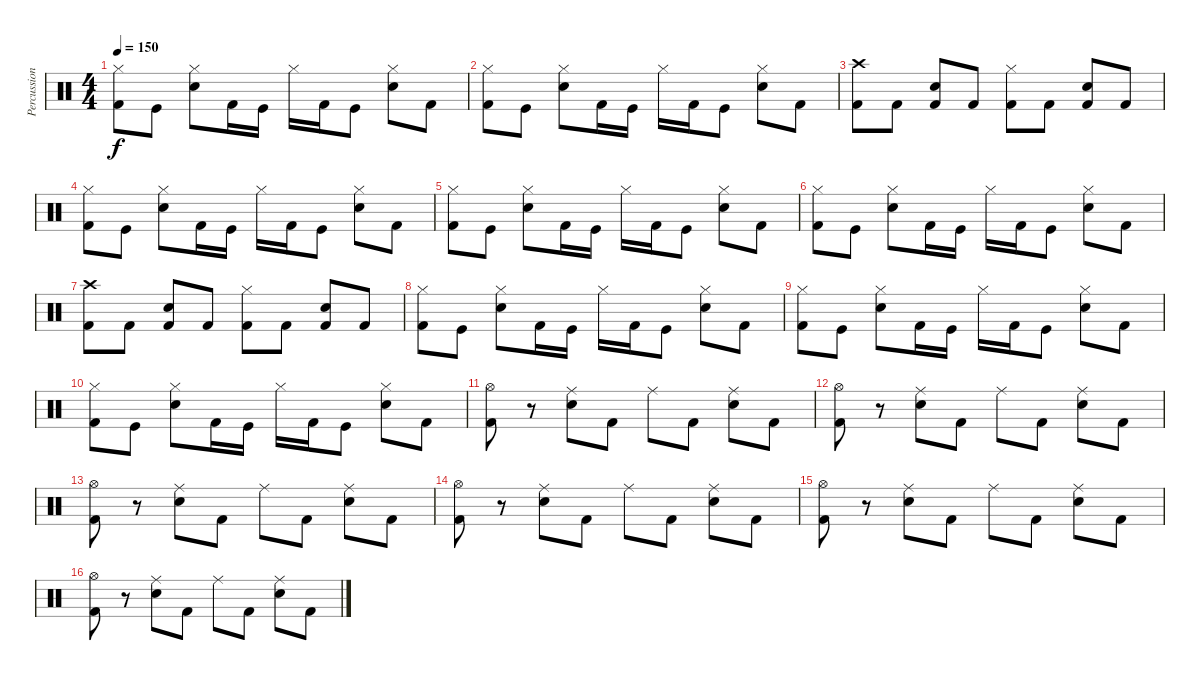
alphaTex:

\track ("Percussion" "Percussion") {instrument percussion}
\staff {score}
\articulation defaults
\ts (4 4)
\tempo 150
\clef neutral
\ks c
("Hi-Hat (closed)" "Kick (hit) 2").8{dy f} "Kick (hit)".8 ("Hi-Hat (closed)" "Snare (hit) 2").8 "Kick (hit) 2".16 "Kick (hit)".16 "Hi-Hat (closed)".16 "Kick (hit) 2".16 "Kick (hit)".8 ("Hi-Hat (closed)" "Snare (hit) 2").8 "Kick (hit) 2".8 |
("Hi-Hat (closed)" "Kick (hit) 2").8 "Kick (hit)".8 ("Hi-Hat (closed)" "Snare (hit) 2").8 "Kick (hit) 2".16 "Kick (hit)".16 "Hi-Hat (closed)".16 "Kick (hit) 2".16 "Kick (hit)".8 ("Hi-Hat (closed)" "Snare (hit) 2").8 "Kick (hit) 2".8 |
("Crash high (hit)" "Kick (hit) 2").8 "Kick (hit) 2".8 ("Snare (hit) 2" "Kick (hit) 2").8 "Kick (hit) 2".8 ("Hi-Hat (closed)" "Kick (hit) 2").8 "Kick (hit) 2".8 ("Snare (hit) 2" "Kick (hit) 2").8 "Kick (hit) 2".8 |
("Hi-Hat (closed)" "Kick (hit) 2").8 "Kick (hit)".8 ("Hi-Hat (closed)" "Snare (hit) 2").8 "Kick (hit) 2".16 "Kick (hit)".16 "Hi-Hat (closed)".16 "Kick (hit) 2".16 "Kick (hit)".8 ("Hi-Hat (closed)" "Snare (hit) 2").8 "Kick (hit) 2".8 |
("Hi-Hat (closed)" "Kick (hit) 2").8 "Kick (hit)".8 ("Hi-Hat (closed)" "Snare (hit) 2").8 "Kick (hit) 2".16 "Kick (hit)".16 "Hi-Hat (closed)".16 "Kick (hit) 2".16 "Kick (hit)".8 ("Hi-Hat (closed)" "Snare (hit) 2").8 "Kick (hit) 2".8 |
("Hi-Hat (closed)" "Kick (hit) 2").8 "Kick (hit)".8 ("Hi-Hat (closed)" "Snare (hit) 2").8 "Kick (hit) 2".16 "Kick (hit)".16 "Hi-Hat (closed)".16 "Kick (hit) 2".16 "Kick (hit)".8 ("Hi-Hat (closed)" "Snare (hit) 2").8 "Kick (hit) 2".8 |
("Crash high (hit)" "Kick (hit) 2").8 "Kick (hit) 2".8 ("Snare (hit) 2" "Kick (hit) 2").8 "Kick (hit) 2".8 ("Hi-Hat (closed)" "Kick (hit) 2").8 "Kick (hit) 2".8 ("Snare (hit) 2" "Kick (hit) 2").8 "Kick (hit) 2".8 |
("Hi-Hat (closed)" "Kick (hit) 2").8 "Kick (hit)".8 ("Hi-Hat (closed)" "Snare (hit) 2").8 "Kick (hit) 2".16 "Kick (hit)".16 "Hi-Hat (closed)".16 "Kick (hit) 2".16 "Kick (hit)".8 ("Hi-Hat (closed)" "Snare (hit) 2").8 "Kick (hit) 2".8 |
("Hi-Hat (closed)" "Kick (hit) 2").8 "Kick (hit)".8 ("Hi-Hat (closed)" "Snare (hit) 2").8 "Kick (hit) 2".16 "Kick (hit)".16 "Hi-Hat (closed)".16 "Kick (hit) 2".16 "Kick (hit)".8 ("Hi-Hat (closed)" "Snare (hit) 2").8 "Kick (hit) 2".8 |
("Hi-Hat (closed)" "Kick (hit) 2").8 "Kick (hit)".8 ("Hi-Hat (closed)" "Snare (hit) 2").8 "Kick (hit) 2".16 "Kick (hit)".16 "Hi-Hat (closed)".16 "Kick (hit) 2".16 "Kick (hit)".8 ("Hi-Hat (closed)" "Snare (hit) 2").8 "Kick (hit) 2".8 |
("Hi-Hat (open)" "Kick (hit) 2").8 r.8 ("Ride (middle)" "Snare (hit) 2").8 "Kick (hit) 2".8 "Ride (middle)".8 "Kick (hit) 2".8 ("Ride (middle)" "Snare (hit) 2").8 "Kick (hit) 2".8 |
("Hi-Hat (open)" "Kick (hit) 2").8 r.8 ("Ride (middle)" "Snare (hit) 2").8 "Kick (hit) 2".8 "Ride (middle)".8 "Kick (hit) 2".8 ("Ride (middle)" "Snare (hit) 2").8 "Kick (hit) 2".8 |
("Hi-Hat (open)" "Kick (hit) 2").8 r.8 ("Ride (middle)" "Snare (hit) 2").8 "Kick (hit) 2".8 "Ride (middle)".8 "Kick (hit) 2".8 ("Ride (middle)" "Snare (hit) 2").8 "Kick (hit) 2".8 |
("Hi-Hat (open)" "Kick (hit) 2").8 r.8 ("Ride (middle)" "Snare (hit) 2").8 "Kick (hit) 2".8 "Ride (middle)".8 "Kick (hit) 2".8 ("Ride (middle)" "Snare (hit) 2").8 "Kick (hit) 2".8 |
("Hi-Hat (open)" "Kick (hit) 2").8 r.8 ("Ride (middle)" "Snare (hit) 2").8 "Kick (hit) 2".8 "Ride (middle)".8 "Kick (hit) 2".8 ("Ride (middle)" "Snare (hit) 2").8 "Kick (hit) 2".8 |
("Hi-Hat (open)" "Kick (hit) 2").8 r.8 ("Ride (middle)" "Snare (hit) 2").8 "Kick (hit) 2".8 "Ride (middle)".8 "Kick (hit) 2".8 ("Ride (middle)" "Snare (hit) 2").8 "Kick (hit) 2".8
